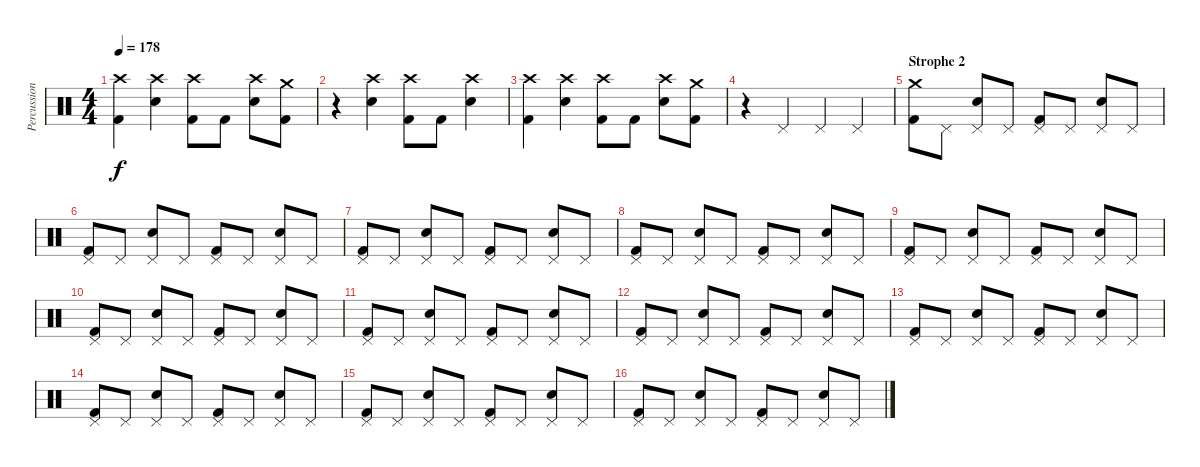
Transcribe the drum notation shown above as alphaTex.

\track ("Percussion" "Percussion") {instrument percussion}
\staff {score}
\articulation defaults
\ts (4 4)
\tempo 178
\clef neutral
\ks c
("Crash high (hit)" "Kick (hit) 2").4{dy f} ("Crash high (hit)" "Snare (hit) 2").4 ("Crash high (hit)" "Kick (hit) 2").8 "Kick (hit) 2".8 ("Crash high (hit)" "Snare (hit) 2").8 ("Crash medium (hit)" "Kick (hit) 2").8 |
r.4 ("Crash high (hit)" "Snare (hit) 2").4 ("Crash high (hit)" "Kick (hit) 2").8 "Kick (hit) 2".8 ("Crash high (hit)" "Snare (hit) 2").4 |
("Crash high (hit)" "Kick (hit) 2").4 ("Crash high (hit)" "Snare (hit) 2").4 ("Crash high (hit)" "Kick (hit) 2").8 "Kick (hit) 2".8 ("Crash high (hit)" "Snare (hit) 2").8 ("Crash medium (hit)" "Kick (hit) 2").8 |
r.4 "Pedal Hi-Hat (hit)".4 "Pedal Hi-Hat (hit)".4 "Pedal Hi-Hat (hit)".4 |
\section ("" "Strophe 2")
("Crash medium (hit)" "Kick (hit) 2").8 "Pedal Hi-Hat (hit)".8 ("Pedal Hi-Hat (hit)" "Snare (hit) 2").8 "Pedal Hi-Hat (hit)".8 ("Pedal Hi-Hat (hit)" "Kick (hit) 2").8 "Pedal Hi-Hat (hit)".8 ("Pedal Hi-Hat (hit)" "Snare (hit) 2").8 "Pedal Hi-Hat (hit)".8 |
("Pedal Hi-Hat (hit)" "Kick (hit) 2").8 "Pedal Hi-Hat (hit)".8 ("Pedal Hi-Hat (hit)" "Snare (hit) 2").8 "Pedal Hi-Hat (hit)".8 ("Pedal Hi-Hat (hit)" "Kick (hit) 2").8 "Pedal Hi-Hat (hit)".8 ("Pedal Hi-Hat (hit)" "Snare (hit) 2").8 "Pedal Hi-Hat (hit)".8 |
("Pedal Hi-Hat (hit)" "Kick (hit) 2").8 "Pedal Hi-Hat (hit)".8 ("Pedal Hi-Hat (hit)" "Snare (hit) 2").8 "Pedal Hi-Hat (hit)".8 ("Pedal Hi-Hat (hit)" "Kick (hit) 2").8 "Pedal Hi-Hat (hit)".8 ("Pedal Hi-Hat (hit)" "Snare (hit) 2").8 "Pedal Hi-Hat (hit)".8 |
("Pedal Hi-Hat (hit)" "Kick (hit) 2").8 "Pedal Hi-Hat (hit)".8 ("Pedal Hi-Hat (hit)" "Snare (hit) 2").8 "Pedal Hi-Hat (hit)".8 ("Pedal Hi-Hat (hit)" "Kick (hit) 2").8 "Pedal Hi-Hat (hit)".8 ("Pedal Hi-Hat (hit)" "Snare (hit) 2").8 "Pedal Hi-Hat (hit)".8 |
("Pedal Hi-Hat (hit)" "Kick (hit) 2").8 "Pedal Hi-Hat (hit)".8 ("Pedal Hi-Hat (hit)" "Snare (hit) 2").8 "Pedal Hi-Hat (hit)".8 ("Pedal Hi-Hat (hit)" "Kick (hit) 2").8 "Pedal Hi-Hat (hit)".8 ("Pedal Hi-Hat (hit)" "Snare (hit) 2").8 "Pedal Hi-Hat (hit)".8 |
("Pedal Hi-Hat (hit)" "Kick (hit) 2").8 "Pedal Hi-Hat (hit)".8 ("Pedal Hi-Hat (hit)" "Snare (hit) 2").8 "Pedal Hi-Hat (hit)".8 ("Pedal Hi-Hat (hit)" "Kick (hit) 2").8 "Pedal Hi-Hat (hit)".8 ("Pedal Hi-Hat (hit)" "Snare (hit) 2").8 "Pedal Hi-Hat (hit)".8 |
("Pedal Hi-Hat (hit)" "Kick (hit) 2").8 "Pedal Hi-Hat (hit)".8 ("Pedal Hi-Hat (hit)" "Snare (hit) 2").8 "Pedal Hi-Hat (hit)".8 ("Pedal Hi-Hat (hit)" "Kick (hit) 2").8 "Pedal Hi-Hat (hit)".8 ("Pedal Hi-Hat (hit)" "Snare (hit) 2").8 "Pedal Hi-Hat (hit)".8 |
("Pedal Hi-Hat (hit)" "Kick (hit) 2").8 "Pedal Hi-Hat (hit)".8 ("Pedal Hi-Hat (hit)" "Snare (hit) 2").8 "Pedal Hi-Hat (hit)".8 ("Pedal Hi-Hat (hit)" "Kick (hit) 2").8 "Pedal Hi-Hat (hit)".8 ("Pedal Hi-Hat (hit)" "Snare (hit) 2").8 "Pedal Hi-Hat (hit)".8 |
("Pedal Hi-Hat (hit)" "Kick (hit) 2").8 "Pedal Hi-Hat (hit)".8 ("Pedal Hi-Hat (hit)" "Snare (hit) 2").8 "Pedal Hi-Hat (hit)".8 ("Pedal Hi-Hat (hit)" "Kick (hit) 2").8 "Pedal Hi-Hat (hit)".8 ("Pedal Hi-Hat (hit)" "Snare (hit) 2").8 "Pedal Hi-Hat (hit)".8 |
("Pedal Hi-Hat (hit)" "Kick (hit) 2").8 "Pedal Hi-Hat (hit)".8 ("Pedal Hi-Hat (hit)" "Snare (hit) 2").8 "Pedal Hi-Hat (hit)".8 ("Pedal Hi-Hat (hit)" "Kick (hit) 2").8 "Pedal Hi-Hat (hit)".8 ("Pedal Hi-Hat (hit)" "Snare (hit) 2").8 "Pedal Hi-Hat (hit)".8 |
("Pedal Hi-Hat (hit)" "Kick (hit) 2").8 "Pedal Hi-Hat (hit)".8 ("Pedal Hi-Hat (hit)" "Snare (hit) 2").8 "Pedal Hi-Hat (hit)".8 ("Pedal Hi-Hat (hit)" "Kick (hit) 2").8 "Pedal Hi-Hat (hit)".8 ("Pedal Hi-Hat (hit)" "Snare (hit) 2").8 "Pedal Hi-Hat (hit)".8 |
("Pedal Hi-Hat (hit)" "Kick (hit) 2").8 "Pedal Hi-Hat (hit)".8 ("Pedal Hi-Hat (hit)" "Snare (hit) 2").8 "Pedal Hi-Hat (hit)".8 ("Pedal Hi-Hat (hit)" "Kick (hit) 2").8 "Pedal Hi-Hat (hit)".8 ("Pedal Hi-Hat (hit)" "Snare (hit) 2").8 "Pedal Hi-Hat (hit)".8
